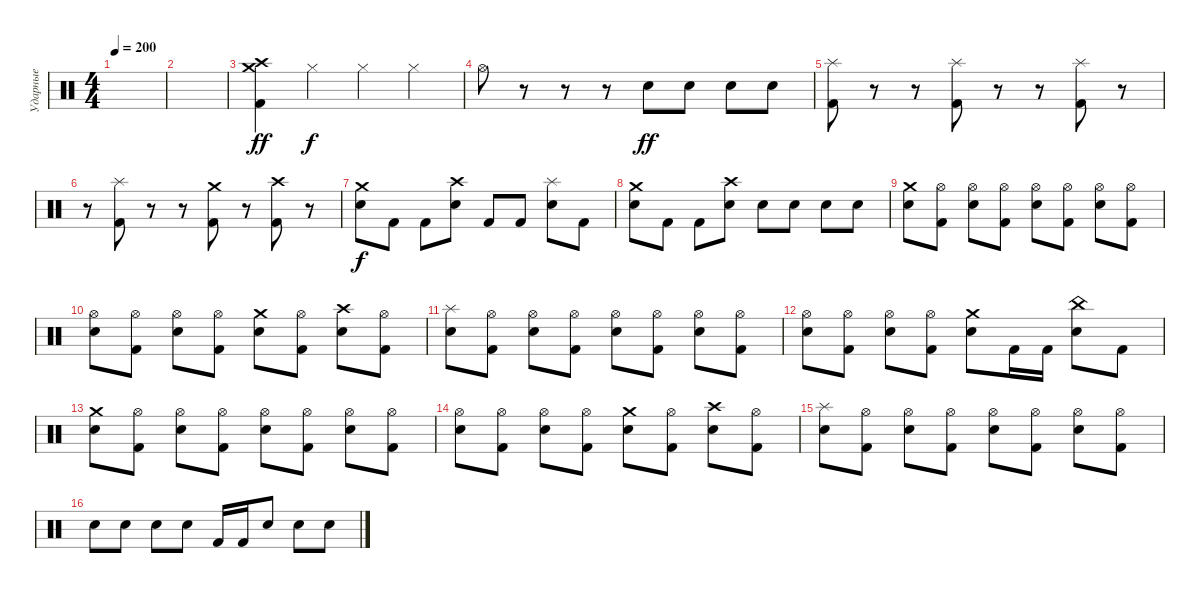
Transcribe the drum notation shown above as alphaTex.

\track ("Ударные" "Ударные") {instrument percussion}
\staff {score}
\articulation defaults
\ts (4 4)
\tempo 200
\clef neutral
\ks c
|
|
("Kick (hit) 2" "Crash high (hit)" "Crash medium (hit)").4{dy ff} "Hi-Hat (closed)".4{dy f} "Hi-Hat (closed)".4 "Hi-Hat (closed)".4 |
"Hi-Hat (open)".8 r.8 r.8 r.8 "Electric Snare (hit)".8{dy ff} "Electric Snare (hit)".8 "Electric Snare (hit)".8 "Electric Snare (hit)".8 |
("Kick (hit) 2" "Splash (hit)").8 r.8 r.8 ("Kick (hit) 2" "Splash (hit)").8 r.8 r.8 ("Kick (hit) 2" "Splash (hit)").8 r.8 |
r.8 ("Kick (hit) 2" "Splash (hit)").8 r.8 r.8 ("Kick (hit) 2" "Crash medium (hit)").8 r.8 ("Kick (hit) 2" "Crash high (hit)").8 r.8 |
("Electric Snare (hit)" "Crash medium (hit)").8{dy f} "Kick (hit) 2".8 "Kick (hit) 2".8 ("Electric Snare (hit)" "Crash high (hit)").8 "Kick (hit) 2".8 "Kick (hit) 2".8 ("Electric Snare (hit)" "Splash (hit)").8 "Kick (hit) 2".8 |
("Electric Snare (hit)" "Crash medium (hit)").8 "Kick (hit) 2".8 "Kick (hit) 2".8 ("Electric Snare (hit)" "Crash high (hit)").8 "Electric Snare (hit)".8 "Electric Snare (hit)".8 "Electric Snare (hit)".8 "Electric Snare (hit)".8 |
("Electric Snare (hit)" "Crash medium (hit)").8 ("Kick (hit) 2" "Hi-Hat (open)").8 ("Electric Snare (hit)" "Hi-Hat (open)").8 ("Kick (hit) 2" "Hi-Hat (open)").8 ("Electric Snare (hit)" "Hi-Hat (open)").8 ("Kick (hit) 2" "Hi-Hat (open)").8 ("Electric Snare (hit)" "Hi-Hat (open)").8 ("Kick (hit) 2" "Hi-Hat (open)").8 |
("Electric Snare (hit)" "Hi-Hat (open)").8 ("Kick (hit) 2" "Hi-Hat (open)").8 ("Electric Snare (hit)" "Hi-Hat (open)").8 ("Kick (hit) 2" "Hi-Hat (open)").8 ("Electric Snare (hit)" "Crash medium (hit)").8 ("Kick (hit) 2" "Hi-Hat (open)").8 ("Electric Snare (hit)" "Crash high (hit)").8 ("Kick (hit) 2" "Hi-Hat (open)").8 |
("Electric Snare (hit)" "Splash (hit)").8 ("Kick (hit) 2" "Hi-Hat (open)").8 ("Electric Snare (hit)" "Hi-Hat (open)").8 ("Kick (hit) 2" "Hi-Hat (open)").8 ("Electric Snare (hit)" "Hi-Hat (open)").8 ("Kick (hit) 2" "Hi-Hat (open)").8 ("Electric Snare (hit)" "Hi-Hat (open)").8 ("Kick (hit) 2" "Hi-Hat (open)").8 |
("Electric Snare (hit)" "Hi-Hat (open)").8 ("Kick (hit) 2" "Hi-Hat (open)").8 ("Electric Snare (hit)" "Hi-Hat (open)").8 ("Kick (hit) 2" "Hi-Hat (open)").8 ("Electric Snare (hit)" "Crash medium (hit)").8 "Kick (hit) 2".16 "Kick (hit) 2".16 ("Electric Snare (hit)" "China (hit)").8 "Kick (hit) 2".8 |
("Electric Snare (hit)" "Crash medium (hit)").8 ("Kick (hit) 2" "Hi-Hat (open)").8 ("Electric Snare (hit)" "Hi-Hat (open)").8 ("Kick (hit) 2" "Hi-Hat (open)").8 ("Electric Snare (hit)" "Hi-Hat (open)").8 ("Kick (hit) 2" "Hi-Hat (open)").8 ("Electric Snare (hit)" "Hi-Hat (open)").8 ("Kick (hit) 2" "Hi-Hat (open)").8 |
("Electric Snare (hit)" "Hi-Hat (open)").8 ("Kick (hit) 2" "Hi-Hat (open)").8 ("Electric Snare (hit)" "Hi-Hat (open)").8 ("Kick (hit) 2" "Hi-Hat (open)").8 ("Electric Snare (hit)" "Crash medium (hit)").8 ("Kick (hit) 2" "Hi-Hat (open)").8 ("Electric Snare (hit)" "Crash high (hit)").8 ("Kick (hit) 2" "Hi-Hat (open)").8 |
("Electric Snare (hit)" "Splash (hit)").8 ("Kick (hit) 2" "Hi-Hat (open)").8 ("Electric Snare (hit)" "Hi-Hat (open)").8 ("Kick (hit) 2" "Hi-Hat (open)").8 ("Electric Snare (hit)" "Hi-Hat (open)").8 ("Kick (hit) 2" "Hi-Hat (open)").8 ("Electric Snare (hit)" "Hi-Hat (open)").8 ("Kick (hit) 2" "Hi-Hat (open)").8 |
"Electric Snare (hit)".8 "Electric Snare (hit)".8 "Electric Snare (hit)".8 "Electric Snare (hit)".8 "Kick (hit) 2".16 "Kick (hit) 2".16 "Electric Snare (hit)".8 "Electric Snare (hit)".8 "Electric Snare (hit)".8
